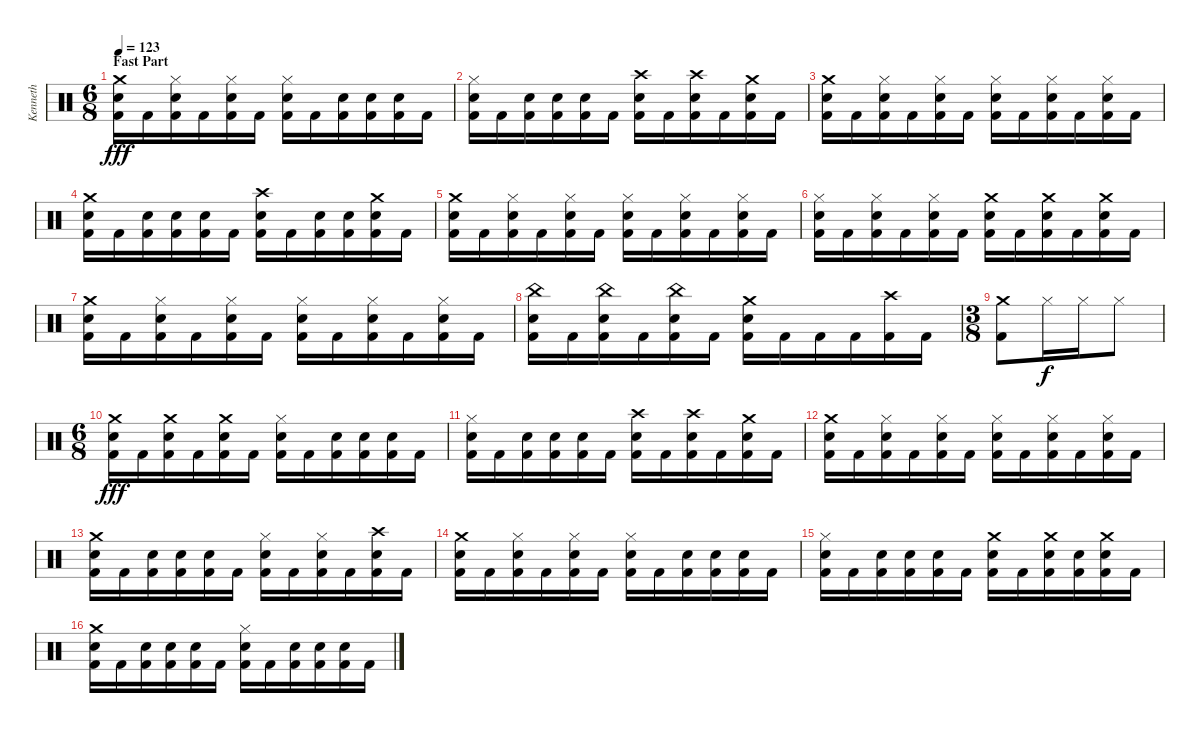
\track ("Kenneth" "Kenneth") {instrument percussion}
\staff {score}
\articulation defaults
\ts (6 8)
\section ("" "Fast Part")
\tempo 123
\clef neutral
\ks c
("Crash medium (hit)" "Snare (hit) 2" "Kick (hit) 2").16{dy fff} "Kick (hit) 2".16 ("Hi-Hat (closed)" "Snare (hit) 2" "Kick (hit) 2").16 "Kick (hit) 2".16 ("Hi-Hat (closed)" "Snare (hit) 2" "Kick (hit) 2").16 "Kick (hit) 2".16 ("Hi-Hat (closed)" "Snare (hit) 2" "Kick (hit) 2").16 "Kick (hit) 2".16 ("Snare (hit) 2" "Kick (hit) 2").16 ("Snare (hit) 2" "Kick (hit) 2").16 ("Snare (hit) 2" "Kick (hit) 2").16 "Kick (hit) 2".16 |
("Hi-Hat (closed)" "Snare (hit) 2" "Kick (hit) 2").16 "Kick (hit) 2".16 ("Snare (hit) 2" "Kick (hit) 2").16 ("Snare (hit) 2" "Kick (hit) 2").16 ("Snare (hit) 2" "Kick (hit) 2").16 "Kick (hit) 2".16 ("Crash high (hit)" "Snare (hit) 2" "Kick (hit) 2").16 "Kick (hit) 2".16 ("Crash high (hit)" "Snare (hit) 2" "Kick (hit) 2").16 "Kick (hit) 2".16 ("Crash medium (hit)" "Snare (hit) 2" "Kick (hit) 2").16 "Kick (hit) 2".16 |
("Crash medium (hit)" "Snare (hit) 2" "Kick (hit) 2").16 "Kick (hit) 2".16 ("Hi-Hat (closed)" "Snare (hit) 2" "Kick (hit) 2").16 "Kick (hit) 2".16 ("Hi-Hat (closed)" "Snare (hit) 2" "Kick (hit) 2").16 "Kick (hit) 2".16 ("Hi-Hat (closed)" "Snare (hit) 2" "Kick (hit) 2").16 "Kick (hit) 2".16 ("Hi-Hat (closed)" "Snare (hit) 2" "Kick (hit) 2").16 "Kick (hit) 2".16 ("Hi-Hat (closed)" "Snare (hit) 2" "Kick (hit) 2").16 "Kick (hit) 2".16 |
("Crash medium (hit)" "Snare (hit) 2" "Kick (hit) 2").16 "Kick (hit) 2".16 ("Snare (hit) 2" "Kick (hit) 2").16 ("Snare (hit) 2" "Kick (hit) 2").16 ("Snare (hit) 2" "Kick (hit) 2").16 "Kick (hit) 2".16 ("Crash high (hit)" "Snare (hit) 2" "Kick (hit) 2").16 "Kick (hit) 2".16 ("Snare (hit) 2" "Kick (hit) 2").16 ("Snare (hit) 2" "Kick (hit) 2").16 ("Crash medium (hit)" "Snare (hit) 2" "Kick (hit) 2").16 "Kick (hit) 2".16 |
("Crash medium (hit)" "Snare (hit) 2" "Kick (hit) 2").16 "Kick (hit) 2".16 ("Hi-Hat (closed)" "Snare (hit) 2" "Kick (hit) 2").16 "Kick (hit) 2".16 ("Hi-Hat (closed)" "Snare (hit) 2" "Kick (hit) 2").16 "Kick (hit) 2".16 ("Hi-Hat (closed)" "Snare (hit) 2" "Kick (hit) 2").16 "Kick (hit) 2".16 ("Hi-Hat (closed)" "Snare (hit) 2" "Kick (hit) 2").16 "Kick (hit) 2".16 ("Hi-Hat (closed)" "Snare (hit) 2" "Kick (hit) 2").16 "Kick (hit) 2".16 |
("Hi-Hat (closed)" "Snare (hit) 2" "Kick (hit) 2").16 "Kick (hit) 2".16 ("Hi-Hat (closed)" "Snare (hit) 2" "Kick (hit) 2").16 "Kick (hit) 2".16 ("Hi-Hat (closed)" "Snare (hit) 2" "Kick (hit) 2").16 "Kick (hit) 2".16 ("Crash medium (hit)" "Snare (hit) 2" "Kick (hit) 2").16 "Kick (hit) 2".16 ("Crash medium (hit)" "Snare (hit) 2" "Kick (hit) 2").16 "Kick (hit) 2".16 ("Crash medium (hit)" "Snare (hit) 2" "Kick (hit) 2").16 "Kick (hit) 2".16 |
("Crash medium (hit)" "Snare (hit) 2" "Kick (hit) 2").16 "Kick (hit) 2".16 ("Hi-Hat (closed)" "Snare (hit) 2" "Kick (hit) 2").16 "Kick (hit) 2".16 ("Hi-Hat (closed)" "Snare (hit) 2" "Kick (hit) 2").16 "Kick (hit) 2".16 ("Hi-Hat (closed)" "Snare (hit) 2" "Kick (hit) 2").16 "Kick (hit) 2".16 ("Hi-Hat (closed)" "Snare (hit) 2" "Kick (hit) 2").16 "Kick (hit) 2".16 ("Hi-Hat (closed)" "Snare (hit) 2" "Kick (hit) 2").16 "Kick (hit) 2".16 |
("China (hit)" "Snare (hit) 2" "Kick (hit) 2").16 "Kick (hit) 2".16 ("China (hit)" "Snare (hit) 2" "Kick (hit) 2").16 "Kick (hit) 2".16 ("China (hit)" "Snare (hit) 2" "Kick (hit) 2").16 "Kick (hit) 2".16 ("Crash medium (hit)" "Snare (hit) 2" "Kick (hit) 2").16 "Kick (hit) 2".16 "Kick (hit) 2".16 "Kick (hit) 2".16 ("Crash high (hit)" "Kick (hit) 2").16 "Kick (hit) 2".16 |
\ts (3 8)
("Crash medium (hit)" "Kick (hit) 2").8 "Hi-Hat (closed)".16{dy f} "Hi-Hat (closed)".16 "Hi-Hat (closed)".8 |
\ts (6 8)
("Crash medium (hit)" "Snare (hit) 2" "Kick (hit) 2").16{dy fff} "Kick (hit) 2".16 ("Crash medium (hit)" "Snare (hit) 2" "Kick (hit) 2").16 "Kick (hit) 2".16 ("Crash medium (hit)" "Snare (hit) 2" "Kick (hit) 2").16 "Kick (hit) 2".16 ("Hi-Hat (closed)" "Snare (hit) 2" "Kick (hit) 2").16 "Kick (hit) 2".16 ("Snare (hit) 2" "Kick (hit) 2").16 ("Snare (hit) 2" "Kick (hit) 2").16 ("Snare (hit) 2" "Kick (hit) 2").16 "Kick (hit) 2".16 |
("Hi-Hat (closed)" "Snare (hit) 2" "Kick (hit) 2").16 "Kick (hit) 2".16 ("Snare (hit) 2" "Kick (hit) 2").16 ("Snare (hit) 2" "Kick (hit) 2").16 ("Snare (hit) 2" "Kick (hit) 2").16 "Kick (hit) 2".16 ("Crash high (hit)" "Snare (hit) 2" "Kick (hit) 2").16 "Kick (hit) 2".16 ("Crash high (hit)" "Snare (hit) 2" "Kick (hit) 2").16 "Kick (hit) 2".16 ("Crash medium (hit)" "Snare (hit) 2" "Kick (hit) 2").16 "Kick (hit) 2".16 |
("Crash medium (hit)" "Snare (hit) 2" "Kick (hit) 2").16 "Kick (hit) 2".16 ("Hi-Hat (closed)" "Snare (hit) 2" "Kick (hit) 2").16 "Kick (hit) 2".16 ("Hi-Hat (closed)" "Snare (hit) 2" "Kick (hit) 2").16 "Kick (hit) 2".16 ("Hi-Hat (closed)" "Snare (hit) 2" "Kick (hit) 2").16 "Kick (hit) 2".16 ("Hi-Hat (closed)" "Snare (hit) 2" "Kick (hit) 2").16 "Kick (hit) 2".16 ("Hi-Hat (closed)" "Snare (hit) 2" "Kick (hit) 2").16 "Kick (hit) 2".16 |
("Crash medium (hit)" "Snare (hit) 2" "Kick (hit) 2").16 "Kick (hit) 2".16 ("Snare (hit) 2" "Kick (hit) 2").16 ("Snare (hit) 2" "Kick (hit) 2").16 ("Snare (hit) 2" "Kick (hit) 2").16 "Kick (hit) 2".16 ("Hi-Hat (closed)" "Snare (hit) 2" "Kick (hit) 2").16 "Kick (hit) 2".16 ("Hi-Hat (closed)" "Snare (hit) 2" "Kick (hit) 2").16 "Kick (hit) 2".16 ("Crash high (hit)" "Snare (hit) 2" "Kick (hit) 2").16 "Kick (hit) 2".16 |
("Crash medium (hit)" "Snare (hit) 2" "Kick (hit) 2").16 "Kick (hit) 2".16 ("Hi-Hat (closed)" "Snare (hit) 2" "Kick (hit) 2").16 "Kick (hit) 2".16 ("Hi-Hat (closed)" "Snare (hit) 2" "Kick (hit) 2").16 "Kick (hit) 2".16 ("Hi-Hat (closed)" "Snare (hit) 2" "Kick (hit) 2").16 "Kick (hit) 2".16 ("Snare (hit) 2" "Kick (hit) 2").16 ("Snare (hit) 2" "Kick (hit) 2").16 ("Snare (hit) 2" "Kick (hit) 2").16 "Kick (hit) 2".16 |
("Hi-Hat (closed)" "Snare (hit) 2" "Kick (hit) 2").16 "Kick (hit) 2".16 ("Snare (hit) 2" "Kick (hit) 2").16 ("Snare (hit) 2" "Kick (hit) 2").16 ("Snare (hit) 2" "Kick (hit) 2").16 "Kick (hit) 2".16 ("Crash medium (hit)" "Snare (hit) 2" "Kick (hit) 2").16 "Kick (hit) 2".16 ("Crash medium (hit)" "Snare (hit) 2" "Kick (hit) 2").16 ("Snare (hit) 2" "Kick (hit) 2").16 ("Crash medium (hit)" "Snare (hit) 2" "Kick (hit) 2").16 "Kick (hit) 2".16 |
("Crash medium (hit)" "Snare (hit) 2" "Kick (hit) 2").16 "Kick (hit) 2".16 ("Snare (hit) 2" "Kick (hit) 2").16 ("Snare (hit) 2" "Kick (hit) 2").16 ("Snare (hit) 2" "Kick (hit) 2").16 "Kick (hit) 2".16 ("Hi-Hat (closed)" "Snare (hit) 2" "Kick (hit) 2").16 "Kick (hit) 2".16 ("Snare (hit) 2" "Kick (hit) 2").16 ("Snare (hit) 2" "Kick (hit) 2").16 ("Snare (hit) 2" "Kick (hit) 2").16 "Kick (hit) 2".16
